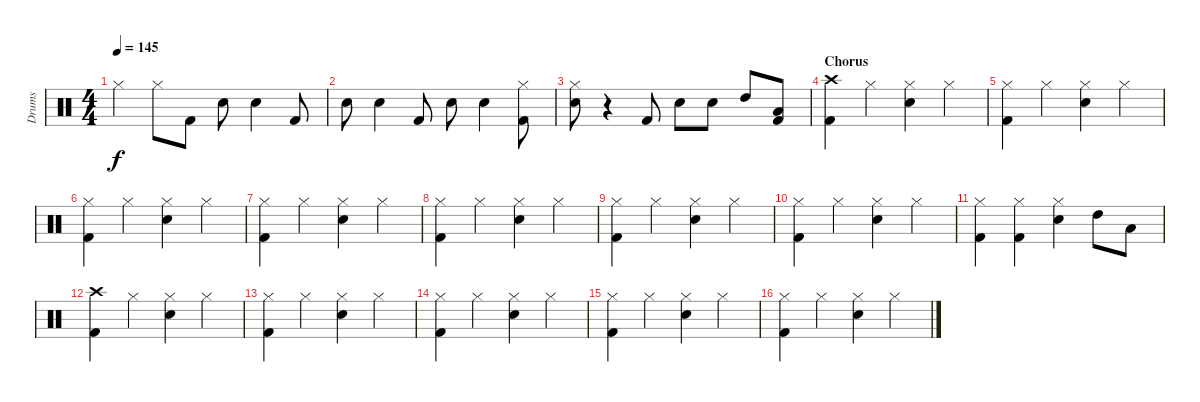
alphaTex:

\track ("Drums" "Drums") {instrument percussion}
\staff {score}
\articulation defaults
\ts (4 4)
\tempo 145
\clef neutral
\ks c "Hi-Hat (closed)".4{dy f} "Hi-Hat (closed)".8 "Kick (hit) 2".8 "Electric Snare (hit)".8 "Electric Snare (hit)".4 "Kick (hit) 2".8
|
"Electric Snare (hit)".8 "Electric Snare (hit)".4 "Kick (hit) 2".8 "Electric Snare (hit)".8 "Electric Snare (hit)".4 ("Hi-Hat (closed)" "Kick (hit) 2").8 |
("Hi-Hat (closed)" "Electric Snare (hit)").8 r.4 "Kick (hit) 2".8 "Electric Snare (hit)".8 "Electric Snare (hit)".8 "High Tom (hit)".8 ("Low Tom (hit)" "Kick (hit) 2").8 |
\section ("" "Chorus")
("Crash high (hit)" "Kick (hit) 2").4 "Hi-Hat (closed)".4 ("Hi-Hat (closed)" "Electric Snare (hit)").4 "Hi-Hat (closed)".4 |
("Hi-Hat (closed)" "Kick (hit) 2").4 "Hi-Hat (closed)".4 ("Hi-Hat (closed)" "Electric Snare (hit)").4 "Hi-Hat (closed)".4 |
("Hi-Hat (closed)" "Kick (hit) 2").4 "Hi-Hat (closed)".4 ("Hi-Hat (closed)" "Electric Snare (hit)").4 "Hi-Hat (closed)".4 |
("Hi-Hat (closed)" "Kick (hit) 2").4 "Hi-Hat (closed)".4 ("Hi-Hat (closed)" "Electric Snare (hit)").4 "Hi-Hat (closed)".4 |
("Hi-Hat (closed)" "Kick (hit) 2").4 "Hi-Hat (closed)".4 ("Hi-Hat (closed)" "Electric Snare (hit)").4 "Hi-Hat (closed)".4 |
("Hi-Hat (closed)" "Kick (hit) 2").4 "Hi-Hat (closed)".4 ("Hi-Hat (closed)" "Electric Snare (hit)").4 "Hi-Hat (closed)".4 |
("Hi-Hat (closed)" "Kick (hit) 2").4 "Hi-Hat (closed)".4 ("Hi-Hat (closed)" "Electric Snare (hit)").4 "Hi-Hat (closed)".4 |
("Hi-Hat (closed)" "Kick (hit) 2").4 ("Hi-Hat (closed)" "Kick (hit) 2").4 ("Hi-Hat (closed)" "Electric Snare (hit)").4 "High Tom (hit)".8 "Low Tom (hit)".8 |
("Crash high (hit)" "Kick (hit) 2").4 "Hi-Hat (closed)".4 ("Hi-Hat (closed)" "Electric Snare (hit)").4 "Hi-Hat (closed)".4 |
("Hi-Hat (closed)" "Kick (hit) 2").4 "Hi-Hat (closed)".4 ("Hi-Hat (closed)" "Electric Snare (hit)").4 "Hi-Hat (closed)".4 |
("Hi-Hat (closed)" "Kick (hit) 2").4 "Hi-Hat (closed)".4 ("Hi-Hat (closed)" "Electric Snare (hit)").4 "Hi-Hat (closed)".4 |
("Hi-Hat (closed)" "Kick (hit) 2").4 "Hi-Hat (closed)".4 ("Hi-Hat (closed)" "Electric Snare (hit)").4 "Hi-Hat (closed)".4 |
("Hi-Hat (closed)" "Kick (hit) 2").4 "Hi-Hat (closed)".4 ("Hi-Hat (closed)" "Electric Snare (hit)").4 "Hi-Hat (closed)".4
